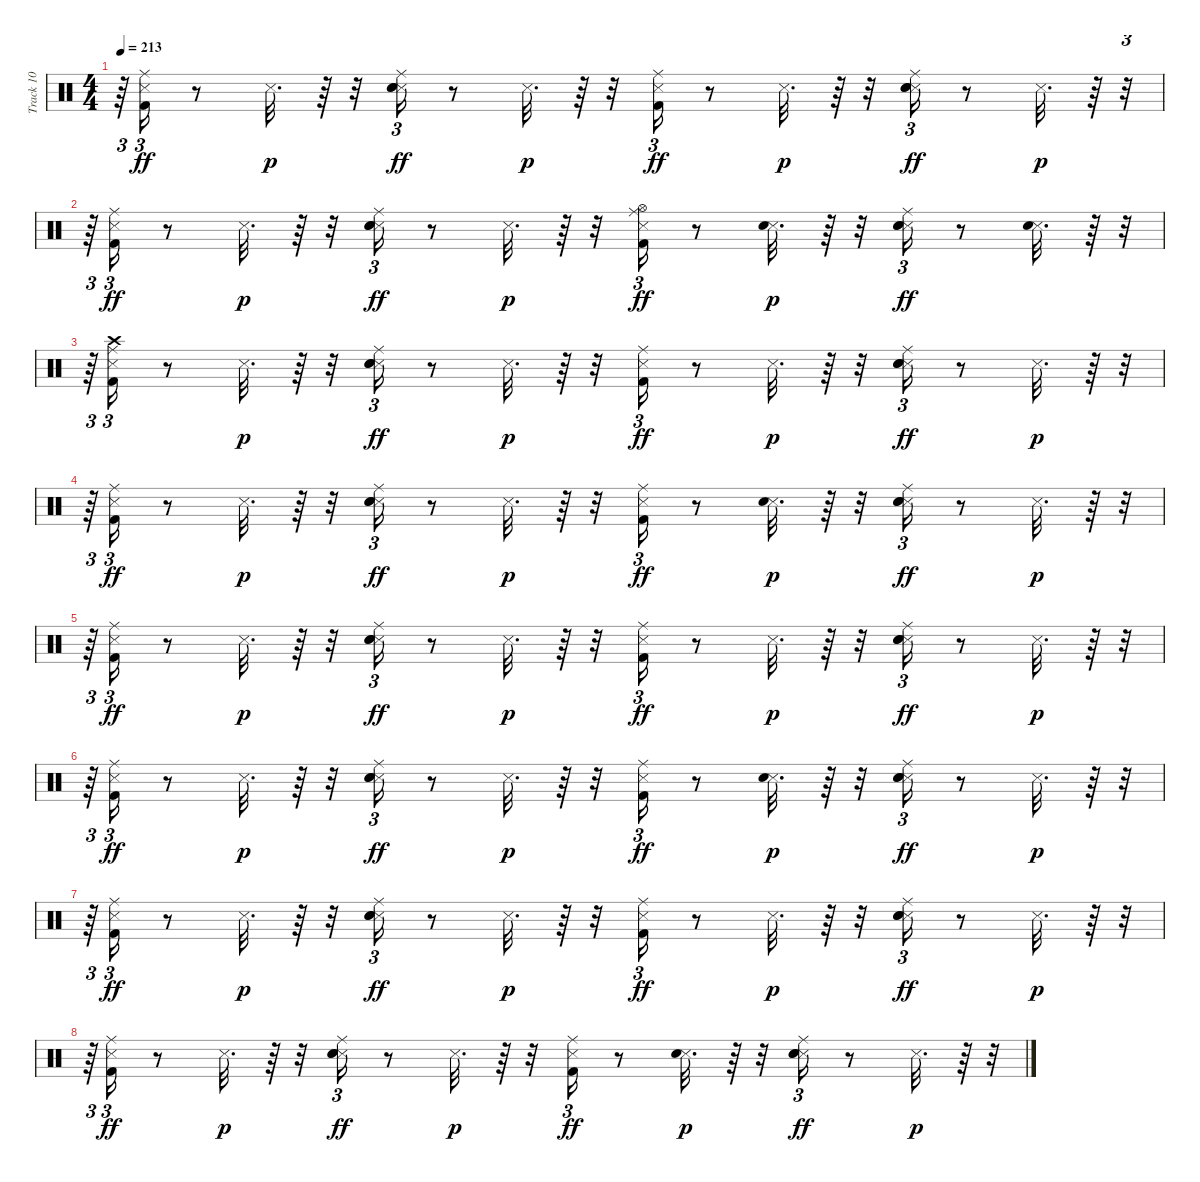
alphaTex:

\track ("Track 10" "Track 10") {instrument percussion}
\staff {score}
\articulation defaults
\ts (4 4)
\tempo 213
\clef neutral
\ks c
r.64{tu (3 2) dy p} ("Kick (hit) 2" "Snare (side stick) 3" "Ride (middle)").16{tu (3 2) dy ff} r.8 "Snare (side stick) 3".32{d dy p} r.64 r.32 ("Snare (side stick) 3" "Hand Clap (hit)" "Electric Snare (hit)" "Ride (middle)").16{tu (3 2) dy ff} r.8 "Snare (side stick) 3".32{d dy p} r.64 r.32 ("Kick (hit) 2" "Snare (side stick) 3" "Ride (middle)").16{tu (3 2) dy ff} r.8 "Snare (side stick) 3".32{d dy p} r.64 r.32 ("Snare (side stick) 3" "Hand Clap (hit)" "Electric Snare (hit)" "Ride (middle)").16{tu (3 2) dy ff} r.8 "Snare (side stick) 3".32{d dy p} r.64 r.32{tu (3 2)} |
r.64{tu (3 2)} ("Kick (hit) 2" "Snare (side stick) 3" "Ride (middle)").16{tu (3 2) dy ff} r.8 "Snare (side stick) 3".32{d dy p} r.64 r.32 ("Snare (side stick) 3" "Hand Clap (hit)" "Electric Snare (hit)" "Ride (middle)").16{tu (3 2) dy ff} r.8 "Snare (side stick) 3".32{d dy p} r.64 r.32 ("Kick (hit) 2" "Snare (side stick) 3" "Hi-Hat (open)" "Ride (middle)").16{tu (3 2) dy ff} r.8 ("Snare (side stick) 3" "Electric Snare (hit)").32{d dy p} r.64 r.32 ("Snare (side stick) 3" "Hand Clap (hit)" "Electric Snare (hit)" "Ride (middle)").16{tu (3 2) dy ff} r.8 ("Snare (side stick) 3" "Electric Snare (hit)").32{d} r.64 r.32{tu (3 2)} |
r.64{tu (3 2)} ("Kick (hit) 2" "Snare (side stick) 3" "Crash high (hit)" "Ride (middle)").16{tu (3 2)} r.8 "Snare (side stick) 3".32{d dy p} r.64 r.32 ("Snare (side stick) 3" "Hand Clap (hit)" "Electric Snare (hit)" "Ride (middle)").16{tu (3 2) dy ff} r.8 "Snare (side stick) 3".32{d dy p} r.64 r.32 ("Kick (hit) 2" "Snare (side stick) 3" "Ride (middle)").16{tu (3 2) dy ff} r.8 "Snare (side stick) 3".32{d dy p} r.64 r.32 ("Snare (side stick) 3" "Hand Clap (hit)" "Electric Snare (hit)" "Ride (middle)").16{tu (3 2) dy ff} r.8 "Snare (side stick) 3".32{d dy p} r.64 r.32{tu (3 2)} |
r.64{tu (3 2)} ("Kick (hit) 2" "Snare (side stick) 3" "Ride (middle)").16{tu (3 2) dy ff} r.8 "Snare (side stick) 3".32{d dy p} r.64 r.32 ("Snare (side stick) 3" "Hand Clap (hit)" "Electric Snare (hit)" "Ride (middle)").16{tu (3 2) dy ff} r.8 "Snare (side stick) 3".32{d dy p} r.64 r.32 ("Kick (hit) 2" "Snare (side stick) 3" "Ride (middle)").16{tu (3 2) dy ff} r.8 ("Snare (side stick) 3" "Electric Snare (hit)").32{d dy p} r.64 r.32 ("Snare (side stick) 3" "Hand Clap (hit)" "Electric Snare (hit)" "Ride (middle)").16{tu (3 2) dy ff} r.8 "Snare (side stick) 3".32{d dy p} r.64 r.32{tu (3 2)} |
r.64{tu (3 2)} ("Kick (hit) 2" "Snare (side stick) 3" "Ride (middle)").16{tu (3 2) dy ff} r.8 "Snare (side stick) 3".32{d dy p} r.64 r.32 ("Snare (side stick) 3" "Hand Clap (hit)" "Electric Snare (hit)" "Ride (middle)").16{tu (3 2) dy ff} r.8 "Snare (side stick) 3".32{d dy p} r.64 r.32 ("Kick (hit) 2" "Snare (side stick) 3" "Ride (middle)").16{tu (3 2) dy ff} r.8 "Snare (side stick) 3".32{d dy p} r.64 r.32 ("Snare (side stick) 3" "Hand Clap (hit)" "Electric Snare (hit)" "Ride (middle)").16{tu (3 2) dy ff} r.8 "Snare (side stick) 3".32{d dy p} r.64 r.32{tu (3 2)} |
r.64{tu (3 2)} ("Kick (hit) 2" "Snare (side stick) 3" "Ride (middle)").16{tu (3 2) dy ff} r.8 "Snare (side stick) 3".32{d dy p} r.64 r.32 ("Snare (side stick) 3" "Hand Clap (hit)" "Electric Snare (hit)" "Ride (middle)").16{tu (3 2) dy ff} r.8 "Snare (side stick) 3".32{d dy p} r.64 r.32 ("Kick (hit) 2" "Snare (side stick) 3" "Ride (middle)").16{tu (3 2) dy ff} r.8 ("Snare (side stick) 3" "Electric Snare (hit)").32{d dy p} r.64 r.32 ("Snare (side stick) 3" "Hand Clap (hit)" "Electric Snare (hit)" "Ride (middle)").16{tu (3 2) dy ff} r.8 "Snare (side stick) 3".32{d dy p} r.64 r.32{tu (3 2)} |
r.64{tu (3 2)} ("Kick (hit) 2" "Snare (side stick) 3" "Ride (middle)").16{tu (3 2) dy ff} r.8 "Snare (side stick) 3".32{d dy p} r.64 r.32 ("Snare (side stick) 3" "Hand Clap (hit)" "Electric Snare (hit)" "Ride (middle)").16{tu (3 2) dy ff} r.8 "Snare (side stick) 3".32{d dy p} r.64 r.32 ("Kick (hit) 2" "Snare (side stick) 3" "Ride (middle)").16{tu (3 2) dy ff} r.8 "Snare (side stick) 3".32{d dy p} r.64 r.32 ("Snare (side stick) 3" "Hand Clap (hit)" "Electric Snare (hit)" "Ride (middle)").16{tu (3 2) dy ff} r.8 "Snare (side stick) 3".32{d dy p} r.64 r.32{tu (3 2)} |
r.64{tu (3 2)} ("Kick (hit) 2" "Snare (side stick) 3" "Ride (middle)").16{tu (3 2) dy ff} r.8 "Snare (side stick) 3".32{d dy p} r.64 r.32 ("Snare (side stick) 3" "Hand Clap (hit)" "Electric Snare (hit)" "Ride (middle)").16{tu (3 2) dy ff} r.8 "Snare (side stick) 3".32{d dy p} r.64 r.32 ("Kick (hit) 2" "Snare (side stick) 3" "Ride (middle)").16{tu (3 2) dy ff} r.8 ("Snare (side stick) 3" "Electric Snare (hit)").32{d dy p} r.64 r.32 ("Snare (side stick) 3" "Hand Clap (hit)" "Electric Snare (hit)" "Ride (middle)").16{tu (3 2) dy ff} r.8 "Snare (side stick) 3".32{d dy p} r.64 r.32{tu (3 2)}
